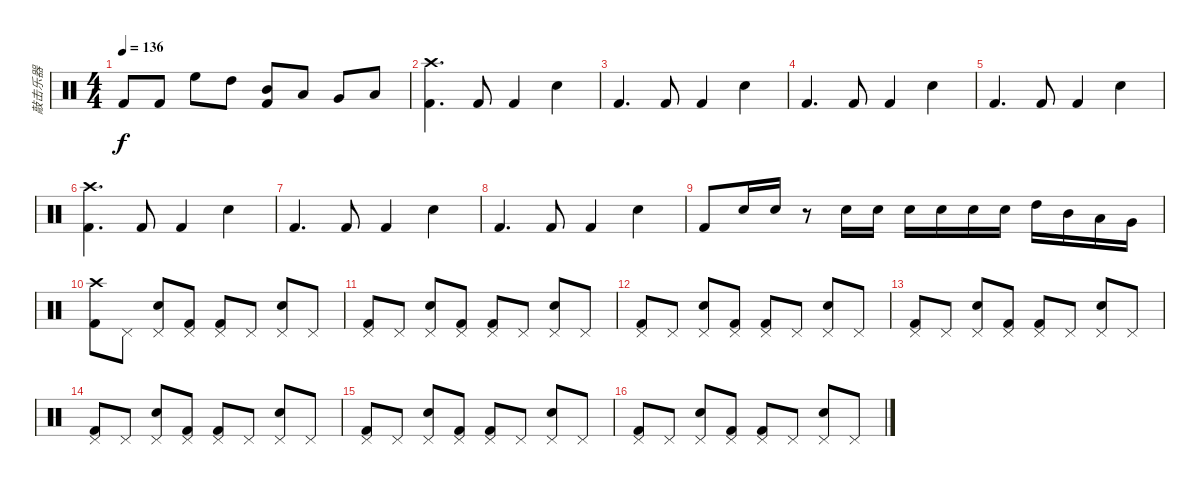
\track ("敲击乐器" "敲击乐器") {instrument percussion}
\staff {score}
\articulation defaults
\ts (4 4)
\tempo 136
\clef neutral
\ks c "Kick (hit) 2".8{dy f} "Kick (hit) 2".8 "High Floor Tom (hit)".8 "High Tom (hit)".8
("Mid Tom (hit)" "Kick (hit) 2").8 "Low Tom (hit)".8 "Very Low Tom (hit)".8 "Low Floor Tom (hit)".8 |
("Crash high (hit)" "Kick (hit) 2").4{d} "Kick (hit) 2".8 "Kick (hit) 2".4 "Snare (hit) 2".4 |
"Kick (hit) 2".4{d} "Kick (hit) 2".8 "Kick (hit) 2".4 "Snare (hit) 2".4 |
"Kick (hit) 2".4{d} "Kick (hit) 2".8 "Kick (hit) 2".4 "Snare (hit) 2".4 |
"Kick (hit) 2".4{d} "Kick (hit) 2".8 "Kick (hit) 2".4 "Snare (hit) 2".4 |
("Crash high (hit)" "Kick (hit) 2").4{d} "Kick (hit) 2".8 "Kick (hit) 2".4 "Snare (hit) 2".4 |
"Kick (hit) 2".4{d} "Kick (hit) 2".8 "Kick (hit) 2".4 "Snare (hit) 2".4 |
"Kick (hit) 2".4{d} "Kick (hit) 2".8 "Kick (hit) 2".4 "Snare (hit) 2".4 |
"Kick (hit) 2".8 "Snare (hit) 2".16 "Snare (hit) 2".16 r.8 "Snare (hit) 2".16 "Snare (hit) 2".16 "Snare (hit) 2".16 "Snare (hit) 2".16 "Snare (hit) 2".16 "Snare (hit) 2".16 "High Tom (hit)".16 "Mid Tom (hit)".16 "Low Tom (hit)".16 "Very Low Tom (hit)".16 |
("Crash high (hit)" "Kick (hit) 2").8 "Pedal Hi-Hat (hit)".8 ("Pedal Hi-Hat (hit)" "Snare (hit) 2").8 ("Pedal Hi-Hat (hit)" "Kick (hit) 2").8 ("Pedal Hi-Hat (hit)" "Kick (hit) 2").8 "Pedal Hi-Hat (hit)".8 ("Pedal Hi-Hat (hit)" "Snare (hit) 2").8 "Pedal Hi-Hat (hit)".8 |
("Pedal Hi-Hat (hit)" "Kick (hit) 2").8 "Pedal Hi-Hat (hit)".8 ("Pedal Hi-Hat (hit)" "Snare (hit) 2").8 ("Pedal Hi-Hat (hit)" "Kick (hit) 2").8 ("Pedal Hi-Hat (hit)" "Kick (hit) 2").8 "Pedal Hi-Hat (hit)".8 ("Pedal Hi-Hat (hit)" "Snare (hit) 2").8 "Pedal Hi-Hat (hit)".8 |
("Pedal Hi-Hat (hit)" "Kick (hit) 2").8 "Pedal Hi-Hat (hit)".8 ("Pedal Hi-Hat (hit)" "Snare (hit) 2").8 ("Pedal Hi-Hat (hit)" "Kick (hit) 2").8 ("Pedal Hi-Hat (hit)" "Kick (hit) 2").8 "Pedal Hi-Hat (hit)".8 ("Pedal Hi-Hat (hit)" "Snare (hit) 2").8 "Pedal Hi-Hat (hit)".8 |
("Pedal Hi-Hat (hit)" "Kick (hit) 2").8 "Pedal Hi-Hat (hit)".8 ("Pedal Hi-Hat (hit)" "Snare (hit) 2").8 ("Pedal Hi-Hat (hit)" "Kick (hit) 2").8 ("Pedal Hi-Hat (hit)" "Kick (hit) 2").8 "Pedal Hi-Hat (hit)".8 ("Pedal Hi-Hat (hit)" "Snare (hit) 2").8 "Pedal Hi-Hat (hit)".8 |
("Pedal Hi-Hat (hit)" "Kick (hit) 2").8 "Pedal Hi-Hat (hit)".8 ("Pedal Hi-Hat (hit)" "Snare (hit) 2").8 ("Pedal Hi-Hat (hit)" "Kick (hit) 2").8 ("Pedal Hi-Hat (hit)" "Kick (hit) 2").8 "Pedal Hi-Hat (hit)".8 ("Pedal Hi-Hat (hit)" "Snare (hit) 2").8 "Pedal Hi-Hat (hit)".8 |
("Pedal Hi-Hat (hit)" "Kick (hit) 2").8 "Pedal Hi-Hat (hit)".8 ("Pedal Hi-Hat (hit)" "Snare (hit) 2").8 ("Pedal Hi-Hat (hit)" "Kick (hit) 2").8 ("Pedal Hi-Hat (hit)" "Kick (hit) 2").8 "Pedal Hi-Hat (hit)".8 ("Pedal Hi-Hat (hit)" "Snare (hit) 2").8 "Pedal Hi-Hat (hit)".8 |
("Pedal Hi-Hat (hit)" "Kick (hit) 2").8 "Pedal Hi-Hat (hit)".8 ("Pedal Hi-Hat (hit)" "Snare (hit) 2").8 ("Pedal Hi-Hat (hit)" "Kick (hit) 2").8 ("Pedal Hi-Hat (hit)" "Kick (hit) 2").8 "Pedal Hi-Hat (hit)".8 ("Pedal Hi-Hat (hit)" "Snare (hit) 2").8 "Pedal Hi-Hat (hit)".8
